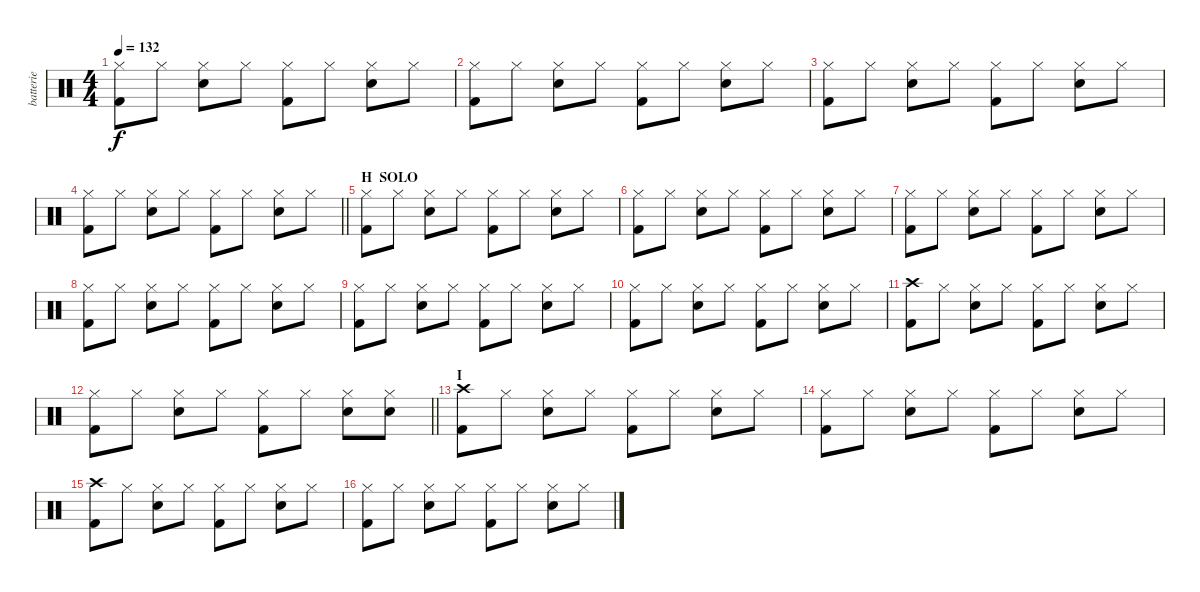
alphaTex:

\track ("batterie" "batterie") {instrument percussion}
\staff {score}
\articulation defaults
\ts (4 4)
\tempo 132
\clef neutral
\ks c
("Hi-Hat (closed)" "Kick (hit) 2").8{dy f} "Hi-Hat (closed)".8 ("Hi-Hat (closed)" "Electric Snare (hit)").8 "Hi-Hat (closed)".8 ("Hi-Hat (closed)" "Kick (hit) 2").8 "Hi-Hat (closed)".8 ("Hi-Hat (closed)" "Electric Snare (hit)").8 "Hi-Hat (closed)".8 |
("Hi-Hat (closed)" "Kick (hit) 2").8 "Hi-Hat (closed)".8 ("Hi-Hat (closed)" "Electric Snare (hit)").8 "Hi-Hat (closed)".8 ("Hi-Hat (closed)" "Kick (hit) 2").8 "Hi-Hat (closed)".8 ("Hi-Hat (closed)" "Electric Snare (hit)").8 "Hi-Hat (closed)".8 |
("Hi-Hat (closed)" "Kick (hit) 2").8 "Hi-Hat (closed)".8 ("Hi-Hat (closed)" "Electric Snare (hit)").8 "Hi-Hat (closed)".8 ("Hi-Hat (closed)" "Kick (hit) 2").8 "Hi-Hat (closed)".8 ("Hi-Hat (closed)" "Electric Snare (hit)").8 "Hi-Hat (closed)".8 |
\barLineRight lightlight
("Hi-Hat (closed)" "Kick (hit) 2").8 "Hi-Hat (closed)".8 ("Hi-Hat (closed)" "Electric Snare (hit)").8 "Hi-Hat (closed)".8 ("Hi-Hat (closed)" "Kick (hit) 2").8 "Hi-Hat (closed)".8 ("Hi-Hat (closed)" "Electric Snare (hit)").8 "Hi-Hat (closed)".8 |
\section ("" "H  SOLO")
("Hi-Hat (closed)" "Kick (hit) 2").8 "Hi-Hat (closed)".8 ("Hi-Hat (closed)" "Electric Snare (hit)").8 "Hi-Hat (closed)".8 ("Hi-Hat (closed)" "Kick (hit) 2").8 "Hi-Hat (closed)".8 ("Hi-Hat (closed)" "Electric Snare (hit)").8 "Hi-Hat (closed)".8 |
("Hi-Hat (closed)" "Kick (hit) 2").8 "Hi-Hat (closed)".8 ("Hi-Hat (closed)" "Electric Snare (hit)").8 "Hi-Hat (closed)".8 ("Hi-Hat (closed)" "Kick (hit) 2").8 "Hi-Hat (closed)".8 ("Hi-Hat (closed)" "Electric Snare (hit)").8 "Hi-Hat (closed)".8 |
("Hi-Hat (closed)" "Kick (hit) 2").8 "Hi-Hat (closed)".8 ("Hi-Hat (closed)" "Electric Snare (hit)").8 "Hi-Hat (closed)".8 ("Hi-Hat (closed)" "Kick (hit) 2").8 "Hi-Hat (closed)".8 ("Hi-Hat (closed)" "Electric Snare (hit)").8 "Hi-Hat (closed)".8 |
("Hi-Hat (closed)" "Kick (hit) 2").8 "Hi-Hat (closed)".8 ("Hi-Hat (closed)" "Electric Snare (hit)").8 "Hi-Hat (closed)".8 ("Hi-Hat (closed)" "Kick (hit) 2").8 "Hi-Hat (closed)".8 ("Hi-Hat (closed)" "Electric Snare (hit)").8 "Hi-Hat (closed)".8 |
("Hi-Hat (closed)" "Kick (hit) 2").8 "Hi-Hat (closed)".8 ("Hi-Hat (closed)" "Electric Snare (hit)").8 "Hi-Hat (closed)".8 ("Hi-Hat (closed)" "Kick (hit) 2").8 "Hi-Hat (closed)".8 ("Hi-Hat (closed)" "Electric Snare (hit)").8 "Hi-Hat (closed)".8 |
("Hi-Hat (closed)" "Kick (hit) 2").8 "Hi-Hat (closed)".8 ("Hi-Hat (closed)" "Electric Snare (hit)").8 "Hi-Hat (closed)".8 ("Hi-Hat (closed)" "Kick (hit) 2").8 "Hi-Hat (closed)".8 ("Hi-Hat (closed)" "Electric Snare (hit)").8 "Hi-Hat (closed)".8 |
("Crash high (hit)" "Kick (hit) 2").8 "Hi-Hat (closed)".8 ("Hi-Hat (closed)" "Electric Snare (hit)").8 "Hi-Hat (closed)".8 ("Hi-Hat (closed)" "Kick (hit) 2").8 "Hi-Hat (closed)".8 ("Hi-Hat (closed)" "Electric Snare (hit)").8 "Hi-Hat (closed)".8 |
\barLineRight lightlight
("Hi-Hat (closed)" "Kick (hit) 2").8 "Hi-Hat (closed)".8 ("Hi-Hat (closed)" "Electric Snare (hit)").8 "Hi-Hat (closed)".8 ("Hi-Hat (closed)" "Kick (hit) 2").8 "Hi-Hat (closed)".8 ("Hi-Hat (closed)" "Electric Snare (hit)").8 ("Hi-Hat (closed)" "Electric Snare (hit)").8 |
\section ("" "I")
("Crash high (hit)" "Kick (hit) 2").8 "Hi-Hat (closed)".8 ("Hi-Hat (closed)" "Electric Snare (hit)").8 "Hi-Hat (closed)".8 ("Hi-Hat (closed)" "Kick (hit) 2").8 "Hi-Hat (closed)".8 ("Hi-Hat (closed)" "Electric Snare (hit)").8 "Hi-Hat (closed)".8 |
("Hi-Hat (closed)" "Kick (hit) 2").8 "Hi-Hat (closed)".8 ("Hi-Hat (closed)" "Electric Snare (hit)").8 "Hi-Hat (closed)".8 ("Hi-Hat (closed)" "Kick (hit) 2").8 "Hi-Hat (closed)".8 ("Hi-Hat (closed)" "Electric Snare (hit)").8 "Hi-Hat (closed)".8 |
("Crash high (hit)" "Kick (hit) 2").8 "Hi-Hat (closed)".8 ("Hi-Hat (closed)" "Electric Snare (hit)").8 "Hi-Hat (closed)".8 ("Hi-Hat (closed)" "Kick (hit) 2").8 "Hi-Hat (closed)".8 ("Hi-Hat (closed)" "Electric Snare (hit)").8 "Hi-Hat (closed)".8 |
("Hi-Hat (closed)" "Kick (hit) 2").8 "Hi-Hat (closed)".8 ("Hi-Hat (closed)" "Electric Snare (hit)").8 "Hi-Hat (closed)".8 ("Hi-Hat (closed)" "Kick (hit) 2").8 "Hi-Hat (closed)".8 ("Hi-Hat (closed)" "Electric Snare (hit)").8 "Hi-Hat (closed)".8
